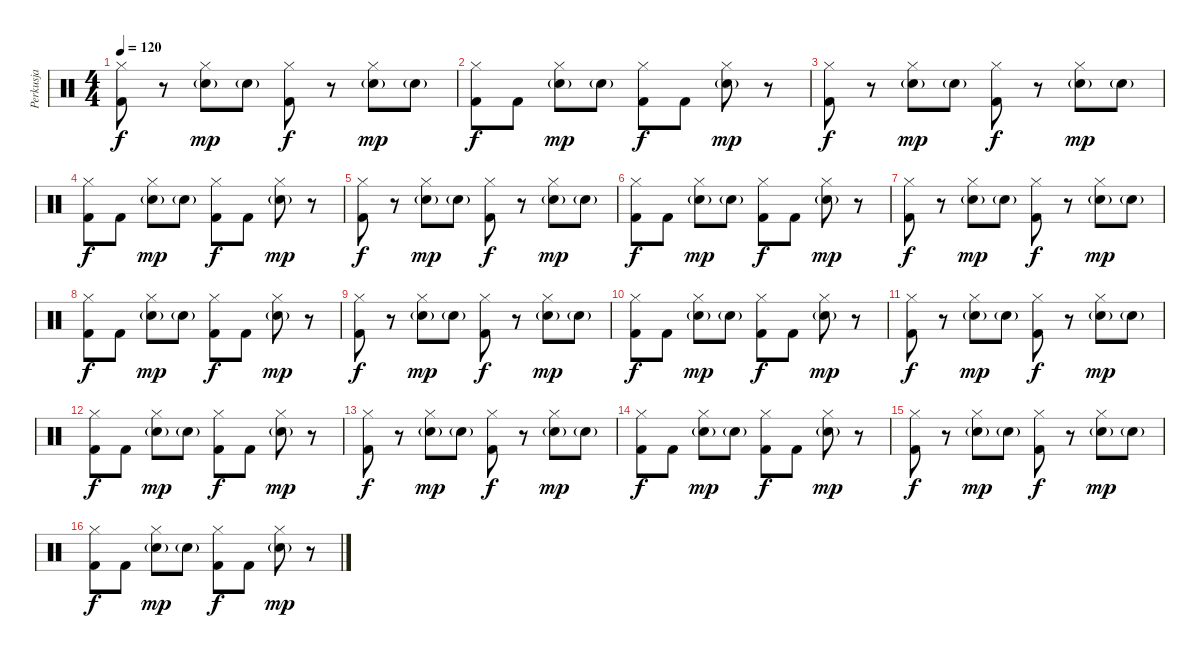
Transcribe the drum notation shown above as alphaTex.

\track ("Perkusja" "Perkusja") {instrument percussion}
\staff {score}
\articulation defaults
\ts (4 4)
\tempo 120
\clef neutral
\ks c
("Hi-Hat (closed)" "Kick (hit) 2").8{dy f} r.8 ("Hi-Hat (closed)" "Snare (hit) 2"{g}).8{dy mp} "Snare (hit) 2"{g}.8 ("Hi-Hat (closed)" "Kick (hit) 2").8{dy f} r.8 ("Hi-Hat (closed)" "Snare (hit) 2"{g}).8{dy mp} "Snare (hit) 2"{g}.8 |
("Hi-Hat (closed)" "Kick (hit) 2").8{dy f} "Kick (hit) 2".8 ("Hi-Hat (closed)" "Snare (hit) 2"{g}).8{dy mp} "Snare (hit) 2"{g}.8 ("Hi-Hat (closed)" "Kick (hit) 2").8{dy f} "Kick (hit) 2".8 ("Hi-Hat (closed)" "Snare (hit) 2"{g}).8{dy mp} r.8 |
("Hi-Hat (closed)" "Kick (hit) 2").8{dy f} r.8 ("Hi-Hat (closed)" "Snare (hit) 2"{g}).8{dy mp} "Snare (hit) 2"{g}.8 ("Hi-Hat (closed)" "Kick (hit) 2").8{dy f} r.8 ("Hi-Hat (closed)" "Snare (hit) 2"{g}).8{dy mp} "Snare (hit) 2"{g}.8 |
("Hi-Hat (closed)" "Kick (hit) 2").8{dy f} "Kick (hit) 2".8 ("Hi-Hat (closed)" "Snare (hit) 2"{g}).8{dy mp} "Snare (hit) 2"{g}.8 ("Hi-Hat (closed)" "Kick (hit) 2").8{dy f} "Kick (hit) 2".8 ("Hi-Hat (closed)" "Snare (hit) 2"{g}).8{dy mp} r.8 |
("Hi-Hat (closed)" "Kick (hit) 2").8{dy f} r.8 ("Hi-Hat (closed)" "Snare (hit) 2"{g}).8{dy mp} "Snare (hit) 2"{g}.8 ("Hi-Hat (closed)" "Kick (hit) 2").8{dy f} r.8 ("Hi-Hat (closed)" "Snare (hit) 2"{g}).8{dy mp} "Snare (hit) 2"{g}.8 |
("Hi-Hat (closed)" "Kick (hit) 2").8{dy f} "Kick (hit) 2".8 ("Hi-Hat (closed)" "Snare (hit) 2"{g}).8{dy mp} "Snare (hit) 2"{g}.8 ("Hi-Hat (closed)" "Kick (hit) 2").8{dy f} "Kick (hit) 2".8 ("Hi-Hat (closed)" "Snare (hit) 2"{g}).8{dy mp} r.8 |
("Hi-Hat (closed)" "Kick (hit) 2").8{dy f} r.8 ("Hi-Hat (closed)" "Snare (hit) 2"{g}).8{dy mp} "Snare (hit) 2"{g}.8 ("Hi-Hat (closed)" "Kick (hit) 2").8{dy f} r.8 ("Hi-Hat (closed)" "Snare (hit) 2"{g}).8{dy mp} "Snare (hit) 2"{g}.8 |
("Hi-Hat (closed)" "Kick (hit) 2").8{dy f} "Kick (hit) 2".8 ("Hi-Hat (closed)" "Snare (hit) 2"{g}).8{dy mp} "Snare (hit) 2"{g}.8 ("Hi-Hat (closed)" "Kick (hit) 2").8{dy f} "Kick (hit) 2".8 ("Hi-Hat (closed)" "Snare (hit) 2"{g}).8{dy mp} r.8 |
("Hi-Hat (closed)" "Kick (hit) 2").8{dy f} r.8 ("Hi-Hat (closed)" "Snare (hit) 2"{g}).8{dy mp} "Snare (hit) 2"{g}.8 ("Hi-Hat (closed)" "Kick (hit) 2").8{dy f} r.8 ("Hi-Hat (closed)" "Snare (hit) 2"{g}).8{dy mp} "Snare (hit) 2"{g}.8 |
("Hi-Hat (closed)" "Kick (hit) 2").8{dy f} "Kick (hit) 2".8 ("Hi-Hat (closed)" "Snare (hit) 2"{g}).8{dy mp} "Snare (hit) 2"{g}.8 ("Hi-Hat (closed)" "Kick (hit) 2").8{dy f} "Kick (hit) 2".8 ("Hi-Hat (closed)" "Snare (hit) 2"{g}).8{dy mp} r.8 |
("Hi-Hat (closed)" "Kick (hit) 2").8{dy f} r.8 ("Hi-Hat (closed)" "Snare (hit) 2"{g}).8{dy mp} "Snare (hit) 2"{g}.8 ("Hi-Hat (closed)" "Kick (hit) 2").8{dy f} r.8 ("Hi-Hat (closed)" "Snare (hit) 2"{g}).8{dy mp} "Snare (hit) 2"{g}.8 |
("Hi-Hat (closed)" "Kick (hit) 2").8{dy f} "Kick (hit) 2".8 ("Hi-Hat (closed)" "Snare (hit) 2"{g}).8{dy mp} "Snare (hit) 2"{g}.8 ("Hi-Hat (closed)" "Kick (hit) 2").8{dy f} "Kick (hit) 2".8 ("Hi-Hat (closed)" "Snare (hit) 2"{g}).8{dy mp} r.8 |
("Hi-Hat (closed)" "Kick (hit) 2").8{dy f} r.8 ("Hi-Hat (closed)" "Snare (hit) 2"{g}).8{dy mp} "Snare (hit) 2"{g}.8 ("Hi-Hat (closed)" "Kick (hit) 2").8{dy f} r.8 ("Hi-Hat (closed)" "Snare (hit) 2"{g}).8{dy mp} "Snare (hit) 2"{g}.8 |
("Hi-Hat (closed)" "Kick (hit) 2").8{dy f} "Kick (hit) 2".8 ("Hi-Hat (closed)" "Snare (hit) 2"{g}).8{dy mp} "Snare (hit) 2"{g}.8 ("Hi-Hat (closed)" "Kick (hit) 2").8{dy f} "Kick (hit) 2".8 ("Hi-Hat (closed)" "Snare (hit) 2"{g}).8{dy mp} r.8 |
("Hi-Hat (closed)" "Kick (hit) 2").8{dy f} r.8 ("Hi-Hat (closed)" "Snare (hit) 2"{g}).8{dy mp} "Snare (hit) 2"{g}.8 ("Hi-Hat (closed)" "Kick (hit) 2").8{dy f} r.8 ("Hi-Hat (closed)" "Snare (hit) 2"{g}).8{dy mp} "Snare (hit) 2"{g}.8 |
("Hi-Hat (closed)" "Kick (hit) 2").8{dy f} "Kick (hit) 2".8 ("Hi-Hat (closed)" "Snare (hit) 2"{g}).8{dy mp} "Snare (hit) 2"{g}.8 ("Hi-Hat (closed)" "Kick (hit) 2").8{dy f} "Kick (hit) 2".8 ("Hi-Hat (closed)" "Snare (hit) 2"{g}).8{dy mp} r.8
